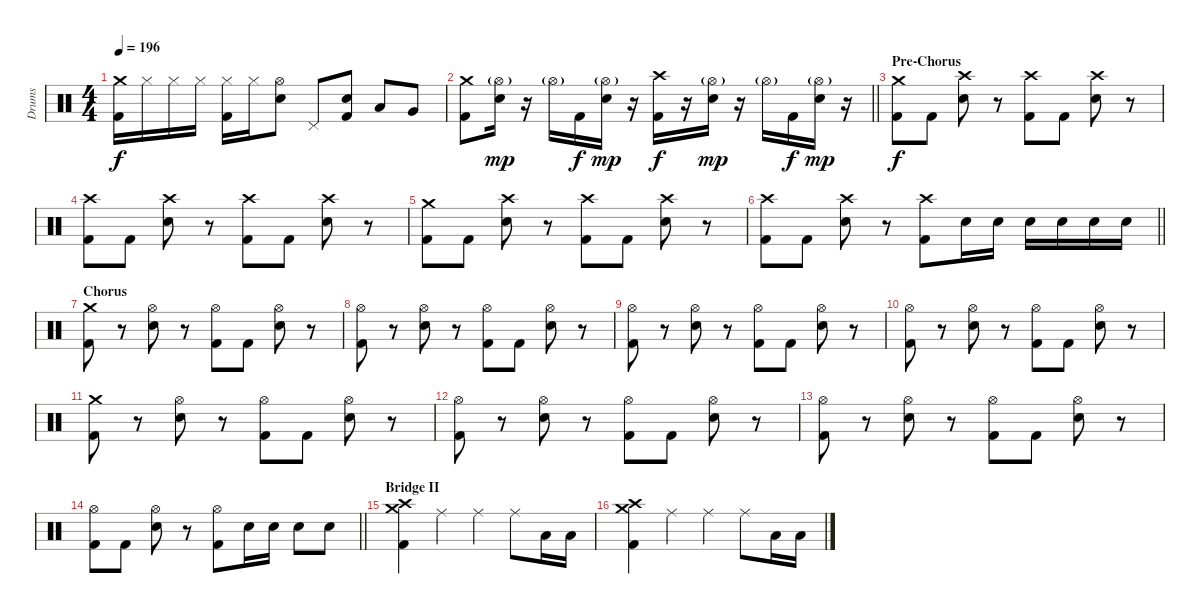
\track ("Drums" "Drums") {instrument percussion}
\staff {score}
\articulation defaults
\ts (4 4)
\tempo 196
\clef neutral
\ks c
("Crash medium (hit)" "Kick (hit) 2").16{dy f} "Hi-Hat (closed)".16 "Hi-Hat (closed)".16 "Hi-Hat (closed)".16 ("Hi-Hat (closed)" "Kick (hit) 2").16 "Hi-Hat (closed)".16 ("Hi-Hat (open)" "Electric Snare (hit)").8 "Pedal Hi-Hat (hit)".8 ("Electric Snare (hit)" "Kick (hit) 2").8 "Low Tom (hit)".8 "Very Low Tom (hit)".8 |
\barLineRight lightlight
("Crash medium (hit)" "Kick (hit) 2").8 ("Hi-Hat (open)"{g} "Electric Snare (hit)").16{dy mp} r.16 "Hi-Hat (open)"{g}.16 "Kick (hit) 2".16{dy f} ("Hi-Hat (open)"{g} "Electric Snare (hit)").16{dy mp} r.16 ("Crash high (hit)" "Kick (hit) 2").16{dy f} r.16 ("Hi-Hat (open)"{g} "Electric Snare (hit)").16{dy mp} r.16 "Hi-Hat (open)"{g}.16 "Kick (hit) 2".16{dy f} ("Hi-Hat (open)"{g} "Electric Snare (hit)").16{dy mp} r.16 |
\section ("" "Pre-Chorus")
("Crash medium (hit)" "Kick (hit) 2").8{dy f} "Kick (hit) 2".8 ("Crash high (hit)" "Electric Snare (hit)").8 r.8 ("Crash high (hit)" "Kick (hit) 2").8 "Kick (hit) 2".8 ("Crash high (hit)" "Electric Snare (hit)").8 r.8 |
("Crash high (hit)" "Kick (hit) 2").8 "Kick (hit) 2".8 ("Crash high (hit)" "Electric Snare (hit)").8 r.8 ("Crash high (hit)" "Kick (hit) 2").8 "Kick (hit) 2".8 ("Crash high (hit)" "Electric Snare (hit)").8 r.8 |
("Crash medium (hit)" "Kick (hit) 2").8 "Kick (hit) 2".8 ("Crash high (hit)" "Electric Snare (hit)").8 r.8 ("Crash high (hit)" "Kick (hit) 2").8 "Kick (hit) 2".8 ("Crash high (hit)" "Electric Snare (hit)").8 r.8 |
\barLineRight lightlight
("Crash high (hit)" "Kick (hit) 2").8 "Kick (hit) 2".8 ("Crash high (hit)" "Electric Snare (hit)").8 r.8 ("Crash high (hit)" "Kick (hit) 2").8 "Electric Snare (hit)".16 "Electric Snare (hit)".16 "Electric Snare (hit)".16 "Electric Snare (hit)".16 "Electric Snare (hit)".16 "Electric Snare (hit)".16 |
\section ("" "Chorus")
("Crash medium (hit)" "Kick (hit) 2").8 r.8 ("Hi-Hat (open)" "Electric Snare (hit)").8 r.8 ("Hi-Hat (open)" "Kick (hit) 2").8 "Kick (hit) 2".8 ("Hi-Hat (open)" "Electric Snare (hit)").8 r.8 |
("Hi-Hat (open)" "Kick (hit) 2").8 r.8 ("Hi-Hat (open)" "Electric Snare (hit)").8 r.8 ("Hi-Hat (open)" "Kick (hit) 2").8 "Kick (hit) 2".8 ("Hi-Hat (open)" "Electric Snare (hit)").8 r.8 |
("Hi-Hat (open)" "Kick (hit) 2").8 r.8 ("Hi-Hat (open)" "Electric Snare (hit)").8 r.8 ("Hi-Hat (open)" "Kick (hit) 2").8 "Kick (hit) 2".8 ("Hi-Hat (open)" "Electric Snare (hit)").8 r.8 |
("Hi-Hat (open)" "Kick (hit) 2").8 r.8 ("Hi-Hat (open)" "Electric Snare (hit)").8 r.8 ("Hi-Hat (open)" "Kick (hit) 2").8 "Kick (hit) 2".8 ("Hi-Hat (open)" "Electric Snare (hit)").8 r.8 |
("Crash medium (hit)" "Kick (hit) 2").8 r.8 ("Hi-Hat (open)" "Electric Snare (hit)").8 r.8 ("Hi-Hat (open)" "Kick (hit) 2").8 "Kick (hit) 2".8 ("Hi-Hat (open)" "Electric Snare (hit)").8 r.8 |
("Hi-Hat (open)" "Kick (hit) 2").8 r.8 ("Hi-Hat (open)" "Electric Snare (hit)").8 r.8 ("Hi-Hat (open)" "Kick (hit) 2").8 "Kick (hit) 2".8 ("Hi-Hat (open)" "Electric Snare (hit)").8 r.8 |
("Hi-Hat (open)" "Kick (hit) 2").8 r.8 ("Hi-Hat (open)" "Electric Snare (hit)").8 r.8 ("Hi-Hat (open)" "Kick (hit) 2").8 "Kick (hit) 2".8 ("Hi-Hat (open)" "Electric Snare (hit)").8 r.8 |
\barLineRight lightlight
("Hi-Hat (open)" "Kick (hit) 2").8 "Kick (hit) 2".8 ("Hi-Hat (open)" "Electric Snare (hit)").8 r.8 ("Hi-Hat (open)" "Kick (hit) 2").8 "Electric Snare (hit)".16 "Electric Snare (hit)".16 "Electric Snare (hit)".8 "Electric Snare (hit)".8 |
\section ("" "Bridge II")
("Crash medium (hit)" "Crash high (hit)" "Kick (hit) 2").4 "Ride (middle)".4 "Ride (middle)".4 "Ride (middle)".8 "Low Tom (hit)".16 "Low Tom (hit)".16 |
("Crash medium (hit)" "Crash high (hit)" "Kick (hit) 2").4 "Ride (middle)".4 "Ride (middle)".4 "Ride (middle)".8 "Low Tom (hit)".16 "Low Tom (hit)".16
